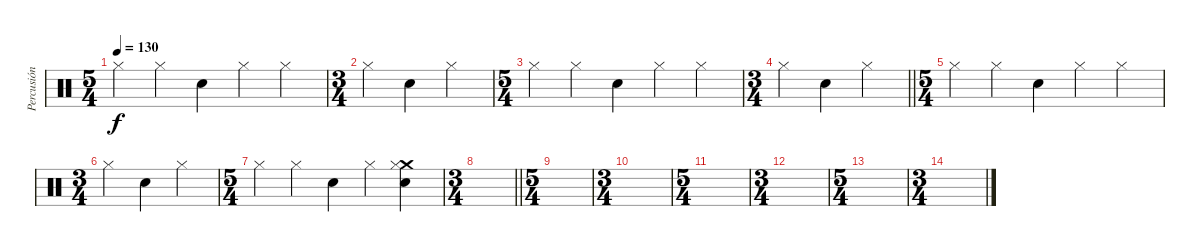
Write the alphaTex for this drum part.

\track ("Percusión" "Percusión") {instrument percussion}
\staff {score}
\articulation defaults
\ts (5 4)
\tempo 130
\clef neutral
\ks c "Hi-Hat (closed)".4{dy f} "Hi-Hat (closed)".4 "Snare (hit) 2".4 "Hi-Hat (closed)".4 "Hi-Hat (closed)".4
|
\ts (3 4)
"Hi-Hat (closed)".4 "Snare (hit) 2".4 "Hi-Hat (closed)".4 |
\ts (5 4)
"Hi-Hat (closed)".4 "Hi-Hat (closed)".4 "Snare (hit) 2".4 "Hi-Hat (closed)".4 "Hi-Hat (closed)".4 |
\ts (3 4)
\barLineRight lightlight "Hi-Hat (closed)".4 "Snare (hit) 2".4 "Hi-Hat (closed)".4
|
\ts (5 4)
"Hi-Hat (closed)".4 "Hi-Hat (closed)".4 "Snare (hit) 2".4 "Hi-Hat (closed)".4 "Hi-Hat (closed)".4 |
\ts (3 4)
"Hi-Hat (closed)".4 "Snare (hit) 2".4 "Hi-Hat (closed)".4 |
\ts (5 4)
"Hi-Hat (closed)".4 "Hi-Hat (closed)".4 "Snare (hit) 2".4 "Hi-Hat (closed)".4 ("Crash medium (hit)" "Hi-Hat (closed)" "Snare (hit) 2").4 |
\ts (3 4)
\barLineRight lightlight
|
\ts (5 4)
|
\ts (3 4)
|
\ts (5 4)
|
\ts (3 4)
|
\ts (5 4)
|
\ts (3 4)
